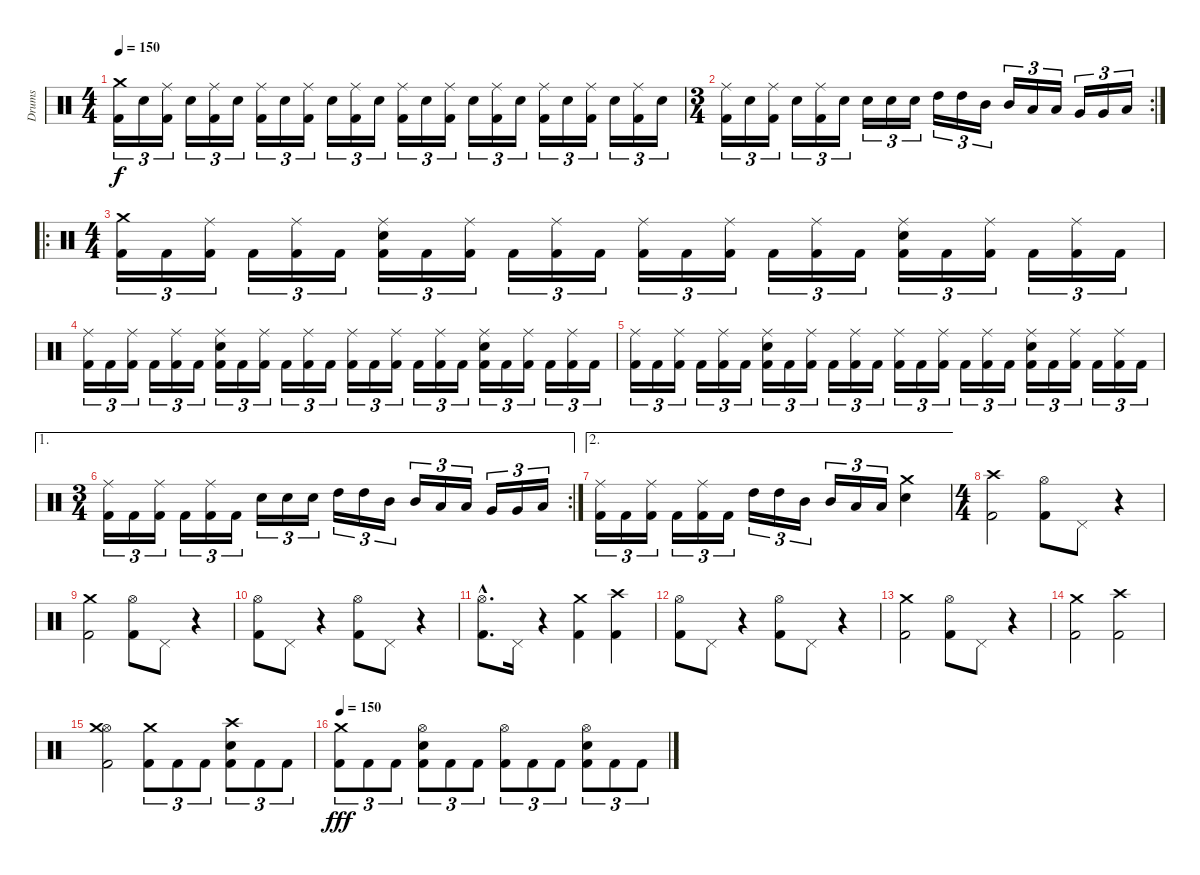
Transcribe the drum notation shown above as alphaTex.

\track ("Drums" "Drums") {instrument percussion}
\staff {score}
\articulation defaults
\ts (4 4)
\tempo 150
\clef neutral
\ks c
("Kick (hit) 2" "Crash medium (hit)").16{tu (3 2) dy f} "Electric Snare (hit)".16{tu (3 2)} ("Kick (hit) 2" "Ride (middle)").16{tu (3 2)} "Electric Snare (hit)".16{tu (3 2)} ("Kick (hit) 2" "Ride (middle)").16{tu (3 2)} "Electric Snare (hit)".16{tu (3 2)} ("Kick (hit) 2" "Ride (middle)").16{tu (3 2)} "Electric Snare (hit)".16{tu (3 2)} ("Kick (hit) 2" "Ride (middle)").16{tu (3 2)} "Electric Snare (hit)".16{tu (3 2)} ("Kick (hit) 2" "Ride (middle)").16{tu (3 2)} "Electric Snare (hit)".16{tu (3 2)} ("Kick (hit) 2" "Ride (middle)").16{tu (3 2)} "Electric Snare (hit)".16{tu (3 2)} ("Kick (hit) 2" "Ride (middle)").16{tu (3 2)} "Electric Snare (hit)".16{tu (3 2)} ("Kick (hit) 2" "Ride (middle)").16{tu (3 2)} "Electric Snare (hit)".16{tu (3 2)} ("Kick (hit) 2" "Ride (middle)").16{tu (3 2)} "Electric Snare (hit)".16{tu (3 2)} ("Kick (hit) 2" "Ride (middle)").16{tu (3 2)} "Electric Snare (hit)".16{tu (3 2)} ("Kick (hit) 2" "Ride (middle)").16{tu (3 2)} "Electric Snare (hit)".16{tu (3 2)} |
\rc 2
\ts (3 4)
("Kick (hit) 2" "Ride (middle)").16{tu (3 2)} "Electric Snare (hit)".16{tu (3 2)} ("Kick (hit) 2" "Ride (middle)").16{tu (3 2)} "Electric Snare (hit)".16{tu (3 2)} ("Kick (hit) 2" "Ride (middle)").16{tu (3 2)} "Electric Snare (hit)".16{tu (3 2)} "Electric Snare (hit)".16{tu (3 2)} "Electric Snare (hit)".16{tu (3 2)} "Electric Snare (hit)".16{tu (3 2)} "High Tom (hit)".16{tu (3 2)} "High Tom (hit)".16{tu (3 2)} "Mid Tom (hit)".16{tu (3 2)} "Mid Tom (hit)".16{tu (3 2)} "Low Tom (hit)".16{tu (3 2)} "Low Tom (hit)".16{tu (3 2)} "Very Low Tom (hit)".16{tu (3 2)} "Very Low Tom (hit)".16{tu (3 2)} "Low Floor Tom (hit)".16{tu (3 2)} |
\ro
\ts (4 4)
("Kick (hit) 2" "Crash medium (hit)").16{tu (3 2)} "Kick (hit) 2".16{tu (3 2)} ("Kick (hit) 2" "Ride (middle)").16{tu (3 2)} "Kick (hit) 2".16{tu (3 2)} ("Kick (hit) 2" "Ride (middle)").16{tu (3 2)} "Kick (hit) 2".16{tu (3 2)} ("Kick (hit) 2" "Electric Snare (hit)" "Ride (middle)").16{tu (3 2)} "Kick (hit) 2".16{tu (3 2)} ("Kick (hit) 2" "Ride (middle)").16{tu (3 2)} "Kick (hit) 2".16{tu (3 2)} ("Kick (hit) 2" "Ride (middle)").16{tu (3 2)} "Kick (hit) 2".16{tu (3 2)} ("Kick (hit) 2" "Ride (middle)").16{tu (3 2)} "Kick (hit) 2".16{tu (3 2)} ("Kick (hit) 2" "Ride (middle)").16{tu (3 2)} "Kick (hit) 2".16{tu (3 2)} ("Kick (hit) 2" "Ride (middle)").16{tu (3 2)} "Kick (hit) 2".16{tu (3 2)} ("Kick (hit) 2" "Electric Snare (hit)" "Ride (middle)").16{tu (3 2)} "Kick (hit) 2".16{tu (3 2)} ("Kick (hit) 2" "Ride (middle)").16{tu (3 2)} "Kick (hit) 2".16{tu (3 2)} ("Kick (hit) 2" "Ride (middle)").16{tu (3 2)} "Kick (hit) 2".16{tu (3 2)} |
("Kick (hit) 2" "Ride (middle)").16{tu (3 2)} "Kick (hit) 2".16{tu (3 2)} ("Kick (hit) 2" "Ride (middle)").16{tu (3 2)} "Kick (hit) 2".16{tu (3 2)} ("Kick (hit) 2" "Ride (middle)").16{tu (3 2)} "Kick (hit) 2".16{tu (3 2)} ("Kick (hit) 2" "Electric Snare (hit)" "Ride (middle)").16{tu (3 2)} "Kick (hit) 2".16{tu (3 2)} ("Kick (hit) 2" "Ride (middle)").16{tu (3 2)} "Kick (hit) 2".16{tu (3 2)} ("Kick (hit) 2" "Ride (middle)").16{tu (3 2)} "Kick (hit) 2".16{tu (3 2)} ("Kick (hit) 2" "Ride (middle)").16{tu (3 2)} "Kick (hit) 2".16{tu (3 2)} ("Kick (hit) 2" "Ride (middle)").16{tu (3 2)} "Kick (hit) 2".16{tu (3 2)} ("Kick (hit) 2" "Ride (middle)").16{tu (3 2)} "Kick (hit) 2".16{tu (3 2)} ("Kick (hit) 2" "Electric Snare (hit)" "Ride (middle)").16{tu (3 2)} "Kick (hit) 2".16{tu (3 2)} ("Kick (hit) 2" "Ride (middle)").16{tu (3 2)} "Kick (hit) 2".16{tu (3 2)} ("Kick (hit) 2" "Ride (middle)").16{tu (3 2)} "Kick (hit) 2".16{tu (3 2)} |
("Kick (hit) 2" "Ride (middle)").16{tu (3 2)} "Kick (hit) 2".16{tu (3 2)} ("Kick (hit) 2" "Ride (middle)").16{tu (3 2)} "Kick (hit) 2".16{tu (3 2)} ("Kick (hit) 2" "Ride (middle)").16{tu (3 2)} "Kick (hit) 2".16{tu (3 2)} ("Kick (hit) 2" "Electric Snare (hit)" "Ride (middle)").16{tu (3 2)} "Kick (hit) 2".16{tu (3 2)} ("Kick (hit) 2" "Ride (middle)").16{tu (3 2)} "Kick (hit) 2".16{tu (3 2)} ("Kick (hit) 2" "Ride (middle)").16{tu (3 2)} "Kick (hit) 2".16{tu (3 2)} ("Kick (hit) 2" "Ride (middle)").16{tu (3 2)} "Kick (hit) 2".16{tu (3 2)} ("Kick (hit) 2" "Ride (middle)").16{tu (3 2)} "Kick (hit) 2".16{tu (3 2)} ("Kick (hit) 2" "Ride (middle)").16{tu (3 2)} "Kick (hit) 2".16{tu (3 2)} ("Kick (hit) 2" "Electric Snare (hit)" "Ride (middle)").16{tu (3 2)} "Kick (hit) 2".16{tu (3 2)} ("Kick (hit) 2" "Ride (middle)").16{tu (3 2)} "Kick (hit) 2".16{tu (3 2)} ("Kick (hit) 2" "Ride (middle)").16{tu (3 2)} "Kick (hit) 2".16{tu (3 2)} |
\ae 1
\rc 2
\ts (3 4)
("Kick (hit) 2" "Ride (middle)").16{tu (3 2)} "Kick (hit) 2".16{tu (3 2)} ("Kick (hit) 2" "Ride (middle)").16{tu (3 2)} "Kick (hit) 2".16{tu (3 2)} ("Kick (hit) 2" "Ride (middle)").16{tu (3 2)} "Kick (hit) 2".16{tu (3 2)} "Electric Snare (hit)".16{tu (3 2)} "Electric Snare (hit)".16{tu (3 2)} "Electric Snare (hit)".16{tu (3 2)} "High Tom (hit)".16{tu (3 2)} "High Tom (hit)".16{tu (3 2)} "Mid Tom (hit)".16{tu (3 2)} "Mid Tom (hit)".16{tu (3 2)} "Low Tom (hit)".16{tu (3 2)} "Low Tom (hit)".16{tu (3 2)} "Very Low Tom (hit)".16{tu (3 2)} "Very Low Tom (hit)".16{tu (3 2)} "Low Floor Tom (hit)".16{tu (3 2)} |
\ae 2
("Kick (hit) 2" "Ride (middle)").16{tu (3 2)} "Kick (hit) 2".16{tu (3 2)} ("Kick (hit) 2" "Ride (middle)").16{tu (3 2)} "Kick (hit) 2".16{tu (3 2)} ("Kick (hit) 2" "Ride (middle)").16{tu (3 2)} "Kick (hit) 2".16{tu (3 2)} "High Tom (hit)".16{tu (3 2)} "High Tom (hit)".16{tu (3 2)} "Mid Tom (hit)".16{tu (3 2)} "Mid Tom (hit)".16{tu (3 2)} "Low Tom (hit)".16{tu (3 2)} "Low Tom (hit)".16{tu (3 2)} ("Electric Snare (hit)" "Crash medium (hit)").4 |
\ts (4 4)
("Kick (hit) 2" "Crash high (hit)").2 ("Kick (hit) 2" "Hi-Hat (open)").8 "Pedal Hi-Hat (hit)".8 r.4 |
("Kick (hit) 2" "Crash medium (hit)").2 ("Kick (hit) 2" "Hi-Hat (open)").8 "Pedal Hi-Hat (hit)".8 r.4 |
("Kick (hit) 2" "Hi-Hat (open)").8 "Pedal Hi-Hat (hit)".8 r.4 ("Kick (hit) 2" "Hi-Hat (open)").8 "Pedal Hi-Hat (hit)".8 r.4 |
("Kick (hit) 2"{hac} "Hi-Hat (open)"{hac}).8{d} "Pedal Hi-Hat (hit)".16 r.4 ("Kick (hit) 2" "Crash medium (hit)").4 ("Kick (hit) 2" "Crash high (hit)").4 |
("Kick (hit) 2" "Hi-Hat (open)").8 "Pedal Hi-Hat (hit)".8 r.4 ("Kick (hit) 2" "Hi-Hat (open)").8 "Pedal Hi-Hat (hit)".8 r.4 |
("Kick (hit) 2" "Crash medium (hit)").2 ("Kick (hit) 2" "Hi-Hat (open)").8 "Pedal Hi-Hat (hit)".8 r.4 |
("Kick (hit) 2" "Crash medium (hit)").2 ("Kick (hit) 2" "Crash high (hit)").2 |
("Kick (hit) 2" "Hi-Hat (open)" "Crash medium (hit)").2 ("Kick (hit) 2" "Crash medium (hit)").8{tu (3 2)} "Kick (hit) 2".8{tu (3 2)} "Kick (hit) 2".8{tu (3 2)} ("Kick (hit) 2" "Electric Snare (hit)" "Crash high (hit)").8{tu (3 2)} "Kick (hit) 2".8{tu (3 2)} "Kick (hit) 2".8{tu (3 2)} |
\tempo 150
("Kick (hit) 2" "Crash medium (hit)").8{tu (3 2) dy fff} "Kick (hit) 2".8{tu (3 2)} "Kick (hit) 2".8{tu (3 2)} ("Kick (hit) 2" "Electric Snare (hit)" "Hi-Hat (open)").8{tu (3 2)} "Kick (hit) 2".8{tu (3 2)} "Kick (hit) 2".8{tu (3 2)} ("Kick (hit) 2" "Hi-Hat (open)").8{tu (3 2)} "Kick (hit) 2".8{tu (3 2)} "Kick (hit) 2".8{tu (3 2)} ("Kick (hit) 2" "Electric Snare (hit)" "Hi-Hat (open)").8{tu (3 2)} "Kick (hit) 2".8{tu (3 2)} "Kick (hit) 2".8{tu (3 2)}
